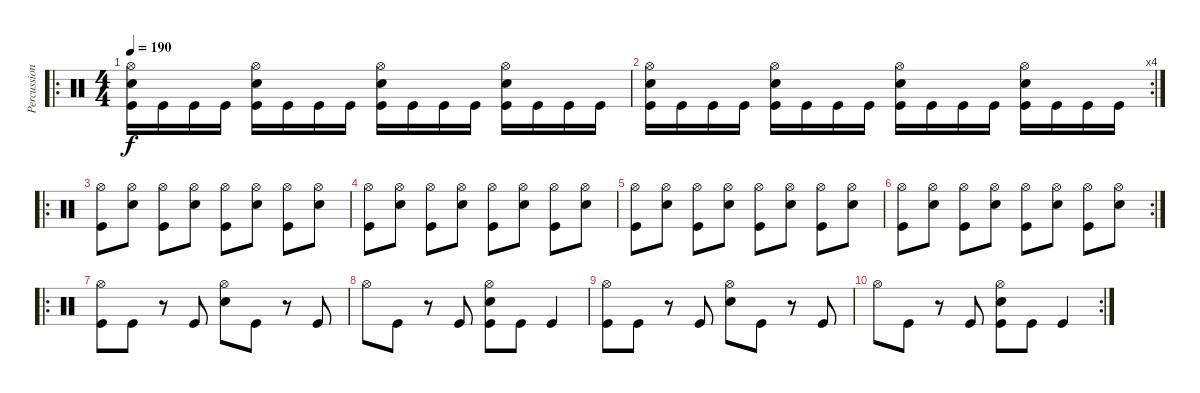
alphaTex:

\track ("Percussion" "Percussion") {instrument percussion}
\staff {score}
\articulation defaults
\ro
\ts (4 4)
\tempo 190
\clef neutral
\ks c
("Hi-Hat (open)" "Snare (hit) 2" "Kick (hit)").16{dy f} "Kick (hit)".16 "Kick (hit)".16 "Kick (hit)".16 ("Hi-Hat (open)" "Snare (hit) 2" "Kick (hit)").16 "Kick (hit)".16 "Kick (hit)".16 "Kick (hit)".16 ("Hi-Hat (open)" "Snare (hit) 2" "Kick (hit)").16 "Kick (hit)".16 "Kick (hit)".16 "Kick (hit)".16 ("Hi-Hat (open)" "Snare (hit) 2" "Kick (hit)").16 "Kick (hit)".16 "Kick (hit)".16 "Kick (hit)".16 |
\rc 4
("Hi-Hat (open)" "Snare (hit) 2" "Kick (hit)").16 "Kick (hit)".16 "Kick (hit)".16 "Kick (hit)".16 ("Hi-Hat (open)" "Snare (hit) 2" "Kick (hit)").16 "Kick (hit)".16 "Kick (hit)".16 "Kick (hit)".16 ("Hi-Hat (open)" "Snare (hit) 2" "Kick (hit)").16 "Kick (hit)".16 "Kick (hit)".16 "Kick (hit)".16 ("Hi-Hat (open)" "Snare (hit) 2" "Kick (hit)").16 "Kick (hit)".16 "Kick (hit)".16 "Kick (hit)".16 |
\ro
("Hi-Hat (open)" "Kick (hit)").8 ("Hi-Hat (open)" "Snare (hit) 2").8 ("Hi-Hat (open)" "Kick (hit)").8 ("Hi-Hat (open)" "Snare (hit) 2").8 ("Hi-Hat (open)" "Kick (hit)").8 ("Hi-Hat (open)" "Snare (hit) 2").8 ("Hi-Hat (open)" "Kick (hit)").8 ("Hi-Hat (open)" "Snare (hit) 2").8 |
("Hi-Hat (open)" "Kick (hit)").8 ("Hi-Hat (open)" "Snare (hit) 2").8 ("Hi-Hat (open)" "Kick (hit)").8 ("Hi-Hat (open)" "Snare (hit) 2").8 ("Hi-Hat (open)" "Kick (hit)").8 ("Hi-Hat (open)" "Snare (hit) 2").8 ("Hi-Hat (open)" "Kick (hit)").8 ("Hi-Hat (open)" "Snare (hit) 2").8 |
("Hi-Hat (open)" "Kick (hit)").8 ("Hi-Hat (open)" "Snare (hit) 2").8 ("Hi-Hat (open)" "Kick (hit)").8 ("Hi-Hat (open)" "Snare (hit) 2").8 ("Hi-Hat (open)" "Kick (hit)").8 ("Hi-Hat (open)" "Snare (hit) 2").8 ("Hi-Hat (open)" "Kick (hit)").8 ("Hi-Hat (open)" "Snare (hit) 2").8 |
\rc 2
("Hi-Hat (open)" "Kick (hit)").8 ("Hi-Hat (open)" "Snare (hit) 2").8 ("Hi-Hat (open)" "Kick (hit)").8 ("Hi-Hat (open)" "Snare (hit) 2").8 ("Hi-Hat (open)" "Kick (hit)").8 ("Hi-Hat (open)" "Snare (hit) 2").8 ("Hi-Hat (open)" "Kick (hit)").8 ("Hi-Hat (open)" "Snare (hit) 2").8 |
\ro
("Hi-Hat (open)" "Kick (hit)").8 "Kick (hit)".8 r.8 "Kick (hit)".8 ("Hi-Hat (open)" "Snare (hit) 2").8 "Kick (hit)".8 r.8 "Kick (hit)".8 |
"Hi-Hat (open)".8 "Kick (hit)".8 r.8 "Kick (hit)".8 ("Hi-Hat (open)" "Snare (hit) 2" "Kick (hit)").8 "Kick (hit)".8 "Kick (hit)".4 |
("Hi-Hat (open)" "Kick (hit)").8 "Kick (hit)".8 r.8 "Kick (hit)".8 ("Hi-Hat (open)" "Snare (hit) 2").8 "Kick (hit)".8 r.8 "Kick (hit)".8 |
\rc 2 "Hi-Hat (open)".8 "Kick (hit)".8
r.8 "Kick (hit)".8 ("Hi-Hat (open)" "Snare (hit) 2" "Kick (hit)").8 "Kick (hit)".8 "Kick (hit)".4
